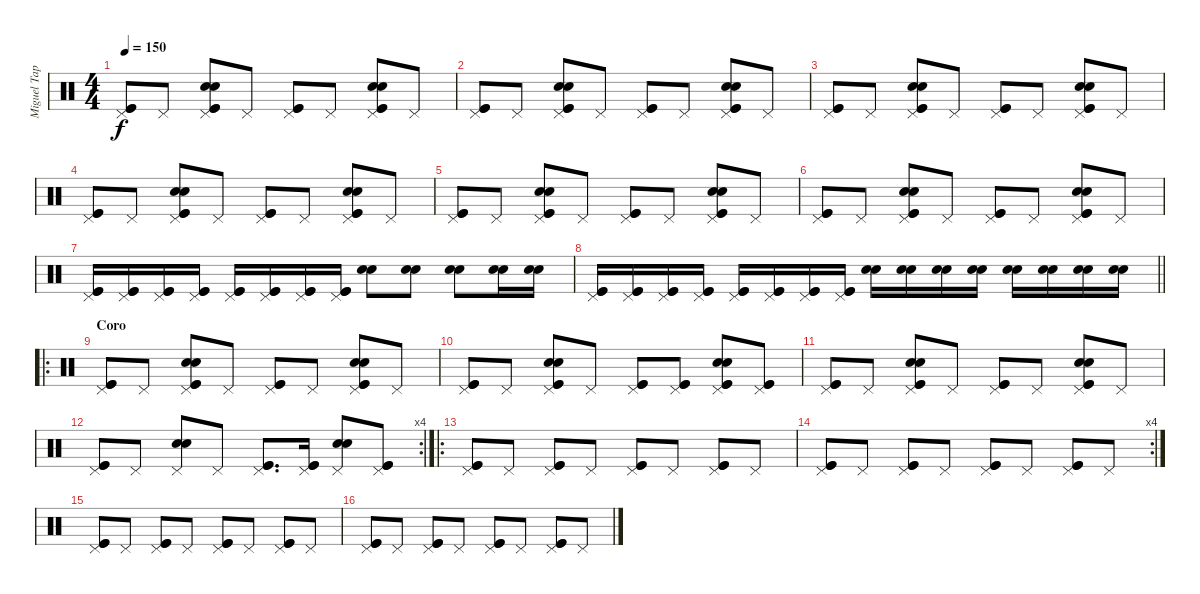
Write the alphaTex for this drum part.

\track ("Miguel Tapia" "Miguel Tap") {instrument percussion}
\staff {score}
\articulation defaults
\ts (4 4)
\tempo 150
\clef neutral
\ks c
("Pedal Hi-Hat (hit)" "Kick (hit)" "Kick (hit)").8{dy f} "Pedal Hi-Hat (hit)".8 ("Pedal Hi-Hat (hit)" "Snare (hit) 2" "Snare (hit) 2" "Kick (hit)" "Kick (hit)").8 "Pedal Hi-Hat (hit)".8 ("Pedal Hi-Hat (hit)" "Kick (hit)" "Kick (hit)").8 "Pedal Hi-Hat (hit)".8 ("Pedal Hi-Hat (hit)" "Snare (hit) 2" "Snare (hit) 2" "Kick (hit)" "Kick (hit)").8 "Pedal Hi-Hat (hit)".8 |
("Pedal Hi-Hat (hit)" "Kick (hit)" "Kick (hit)").8 "Pedal Hi-Hat (hit)".8 ("Pedal Hi-Hat (hit)" "Snare (hit) 2" "Snare (hit) 2" "Kick (hit)" "Kick (hit)").8 "Pedal Hi-Hat (hit)".8 ("Pedal Hi-Hat (hit)" "Kick (hit)" "Kick (hit)").8 "Pedal Hi-Hat (hit)".8 ("Pedal Hi-Hat (hit)" "Snare (hit) 2" "Snare (hit) 2" "Kick (hit)" "Kick (hit)").8 "Pedal Hi-Hat (hit)".8 |
("Pedal Hi-Hat (hit)" "Kick (hit)" "Kick (hit)").8 "Pedal Hi-Hat (hit)".8 ("Pedal Hi-Hat (hit)" "Snare (hit) 2" "Snare (hit) 2" "Kick (hit)" "Kick (hit)").8 "Pedal Hi-Hat (hit)".8 ("Pedal Hi-Hat (hit)" "Kick (hit)" "Kick (hit)").8 "Pedal Hi-Hat (hit)".8 ("Pedal Hi-Hat (hit)" "Snare (hit) 2" "Snare (hit) 2" "Kick (hit)" "Kick (hit)").8 "Pedal Hi-Hat (hit)".8 |
("Pedal Hi-Hat (hit)" "Kick (hit)" "Kick (hit)").8 "Pedal Hi-Hat (hit)".8 ("Pedal Hi-Hat (hit)" "Snare (hit) 2" "Snare (hit) 2" "Kick (hit)" "Kick (hit)").8 "Pedal Hi-Hat (hit)".8 ("Pedal Hi-Hat (hit)" "Kick (hit)" "Kick (hit)").8 "Pedal Hi-Hat (hit)".8 ("Pedal Hi-Hat (hit)" "Snare (hit) 2" "Snare (hit) 2" "Kick (hit)" "Kick (hit)").8 "Pedal Hi-Hat (hit)".8 |
("Pedal Hi-Hat (hit)" "Kick (hit)" "Kick (hit)").8 "Pedal Hi-Hat (hit)".8 ("Pedal Hi-Hat (hit)" "Snare (hit) 2" "Snare (hit) 2" "Kick (hit)" "Kick (hit)").8 "Pedal Hi-Hat (hit)".8 ("Pedal Hi-Hat (hit)" "Kick (hit)" "Kick (hit)").8 "Pedal Hi-Hat (hit)".8 ("Pedal Hi-Hat (hit)" "Snare (hit) 2" "Snare (hit) 2" "Kick (hit)" "Kick (hit)").8 "Pedal Hi-Hat (hit)".8 |
("Pedal Hi-Hat (hit)" "Kick (hit)" "Kick (hit)").8 "Pedal Hi-Hat (hit)".8 ("Pedal Hi-Hat (hit)" "Snare (hit) 2" "Snare (hit) 2" "Kick (hit)" "Kick (hit)").8 "Pedal Hi-Hat (hit)".8 ("Pedal Hi-Hat (hit)" "Kick (hit)" "Kick (hit)").8 "Pedal Hi-Hat (hit)".8 ("Pedal Hi-Hat (hit)" "Snare (hit) 2" "Snare (hit) 2" "Kick (hit)" "Kick (hit)").8 "Pedal Hi-Hat (hit)".8 |
("Pedal Hi-Hat (hit)" "Kick (hit)" "Kick (hit)").16 ("Pedal Hi-Hat (hit)" "Kick (hit)" "Kick (hit)").16 ("Pedal Hi-Hat (hit)" "Kick (hit)" "Kick (hit)").16 ("Pedal Hi-Hat (hit)" "Kick (hit)" "Kick (hit)").16 ("Pedal Hi-Hat (hit)" "Kick (hit)" "Kick (hit)").16 ("Pedal Hi-Hat (hit)" "Kick (hit)" "Kick (hit)").16 ("Pedal Hi-Hat (hit)" "Kick (hit)" "Kick (hit)").16 ("Pedal Hi-Hat (hit)" "Kick (hit)" "Kick (hit)").16 ("Snare (hit) 2" "Snare (hit) 2").8 ("Snare (hit) 2" "Snare (hit) 2").8 ("Snare (hit) 2" "Snare (hit) 2").8 ("Snare (hit) 2" "Snare (hit) 2").16 ("Snare (hit) 2" "Snare (hit) 2").16 |
\barLineRight lightlight
("Pedal Hi-Hat (hit)" "Kick (hit)" "Kick (hit)").16 ("Pedal Hi-Hat (hit)" "Kick (hit)" "Kick (hit)").16 ("Pedal Hi-Hat (hit)" "Kick (hit)" "Kick (hit)").16 ("Pedal Hi-Hat (hit)" "Kick (hit)" "Kick (hit)").16 ("Pedal Hi-Hat (hit)" "Kick (hit)" "Kick (hit)").16 ("Pedal Hi-Hat (hit)" "Kick (hit)" "Kick (hit)").16 ("Pedal Hi-Hat (hit)" "Kick (hit)" "Kick (hit)").16 ("Pedal Hi-Hat (hit)" "Kick (hit)" "Kick (hit)").16 ("Snare (hit) 2" "Snare (hit) 2").16 ("Snare (hit) 2" "Snare (hit) 2").16 ("Snare (hit) 2" "Snare (hit) 2").16 ("Snare (hit) 2" "Snare (hit) 2").16 ("Snare (hit) 2" "Snare (hit) 2").16 ("Snare (hit) 2" "Snare (hit) 2").16 ("Snare (hit) 2" "Snare (hit) 2").16 ("Snare (hit) 2" "Snare (hit) 2").16 |
\ro
\section ("" "Coro")
("Pedal Hi-Hat (hit)" "Kick (hit)" "Kick (hit)").8 "Pedal Hi-Hat (hit)".8 ("Pedal Hi-Hat (hit)" "Snare (hit) 2" "Snare (hit) 2" "Kick (hit)" "Kick (hit)").8 "Pedal Hi-Hat (hit)".8 ("Pedal Hi-Hat (hit)" "Kick (hit)" "Kick (hit)").8 "Pedal Hi-Hat (hit)".8 ("Pedal Hi-Hat (hit)" "Snare (hit) 2" "Snare (hit) 2" "Kick (hit)" "Kick (hit)").8 "Pedal Hi-Hat (hit)".8 |
("Pedal Hi-Hat (hit)" "Kick (hit)" "Kick (hit)").8 "Pedal Hi-Hat (hit)".8 ("Pedal Hi-Hat (hit)" "Snare (hit) 2" "Snare (hit) 2" "Kick (hit)" "Kick (hit)").8 "Pedal Hi-Hat (hit)".8 ("Pedal Hi-Hat (hit)" "Kick (hit)" "Kick (hit)").8 ("Pedal Hi-Hat (hit)" "Kick (hit)" "Kick (hit)").8 ("Pedal Hi-Hat (hit)" "Snare (hit) 2" "Snare (hit) 2" "Kick (hit)" "Kick (hit)").8 ("Pedal Hi-Hat (hit)" "Kick (hit)" "Kick (hit)").8 |
("Pedal Hi-Hat (hit)" "Kick (hit)" "Kick (hit)").8 "Pedal Hi-Hat (hit)".8 ("Pedal Hi-Hat (hit)" "Snare (hit) 2" "Snare (hit) 2" "Kick (hit)" "Kick (hit)").8 "Pedal Hi-Hat (hit)".8 ("Pedal Hi-Hat (hit)" "Kick (hit)" "Kick (hit)").8 "Pedal Hi-Hat (hit)".8 ("Pedal Hi-Hat (hit)" "Snare (hit) 2" "Snare (hit) 2" "Kick (hit)" "Kick (hit)").8 "Pedal Hi-Hat (hit)".8 |
\rc 4
("Pedal Hi-Hat (hit)" "Kick (hit)" "Kick (hit)").8 "Pedal Hi-Hat (hit)".8 ("Pedal Hi-Hat (hit)" "Snare (hit) 2" "Snare (hit) 2").8 "Pedal Hi-Hat (hit)".8 ("Pedal Hi-Hat (hit)" "Kick (hit)" "Kick (hit)").8{d} ("Pedal Hi-Hat (hit)" "Kick (hit)" "Kick (hit)").16 ("Pedal Hi-Hat (hit)" "Snare (hit) 2" "Snare (hit) 2").8 ("Pedal Hi-Hat (hit)" "Kick (hit)" "Kick (hit)").8 |
\ro
("Pedal Hi-Hat (hit)" "Kick (hit)" "Kick (hit)").8 "Pedal Hi-Hat (hit)".8 ("Pedal Hi-Hat (hit)" "Kick (hit)" "Kick (hit)").8 "Pedal Hi-Hat (hit)".8 ("Pedal Hi-Hat (hit)" "Kick (hit)" "Kick (hit)").8 "Pedal Hi-Hat (hit)".8 ("Pedal Hi-Hat (hit)" "Kick (hit)" "Kick (hit)").8 "Pedal Hi-Hat (hit)".8 |
\rc 4
("Pedal Hi-Hat (hit)" "Kick (hit)" "Kick (hit)").8 "Pedal Hi-Hat (hit)".8 ("Pedal Hi-Hat (hit)" "Kick (hit)" "Kick (hit)").8 "Pedal Hi-Hat (hit)".8 ("Pedal Hi-Hat (hit)" "Kick (hit)" "Kick (hit)").8 "Pedal Hi-Hat (hit)".8 ("Pedal Hi-Hat (hit)" "Kick (hit)" "Kick (hit)").8 "Pedal Hi-Hat (hit)".8 |
("Pedal Hi-Hat (hit)" "Kick (hit)" "Kick (hit)").8 "Pedal Hi-Hat (hit)".8 ("Pedal Hi-Hat (hit)" "Kick (hit)" "Kick (hit)").8 "Pedal Hi-Hat (hit)".8 ("Pedal Hi-Hat (hit)" "Kick (hit)" "Kick (hit)").8 "Pedal Hi-Hat (hit)".8 ("Pedal Hi-Hat (hit)" "Kick (hit)" "Kick (hit)").8 "Pedal Hi-Hat (hit)".8 |
("Pedal Hi-Hat (hit)" "Kick (hit)" "Kick (hit)").8 "Pedal Hi-Hat (hit)".8 ("Pedal Hi-Hat (hit)" "Kick (hit)" "Kick (hit)").8 "Pedal Hi-Hat (hit)".8 ("Pedal Hi-Hat (hit)" "Kick (hit)" "Kick (hit)").8 "Pedal Hi-Hat (hit)".8 ("Pedal Hi-Hat (hit)" "Kick (hit)" "Kick (hit)").8 "Pedal Hi-Hat (hit)".8
